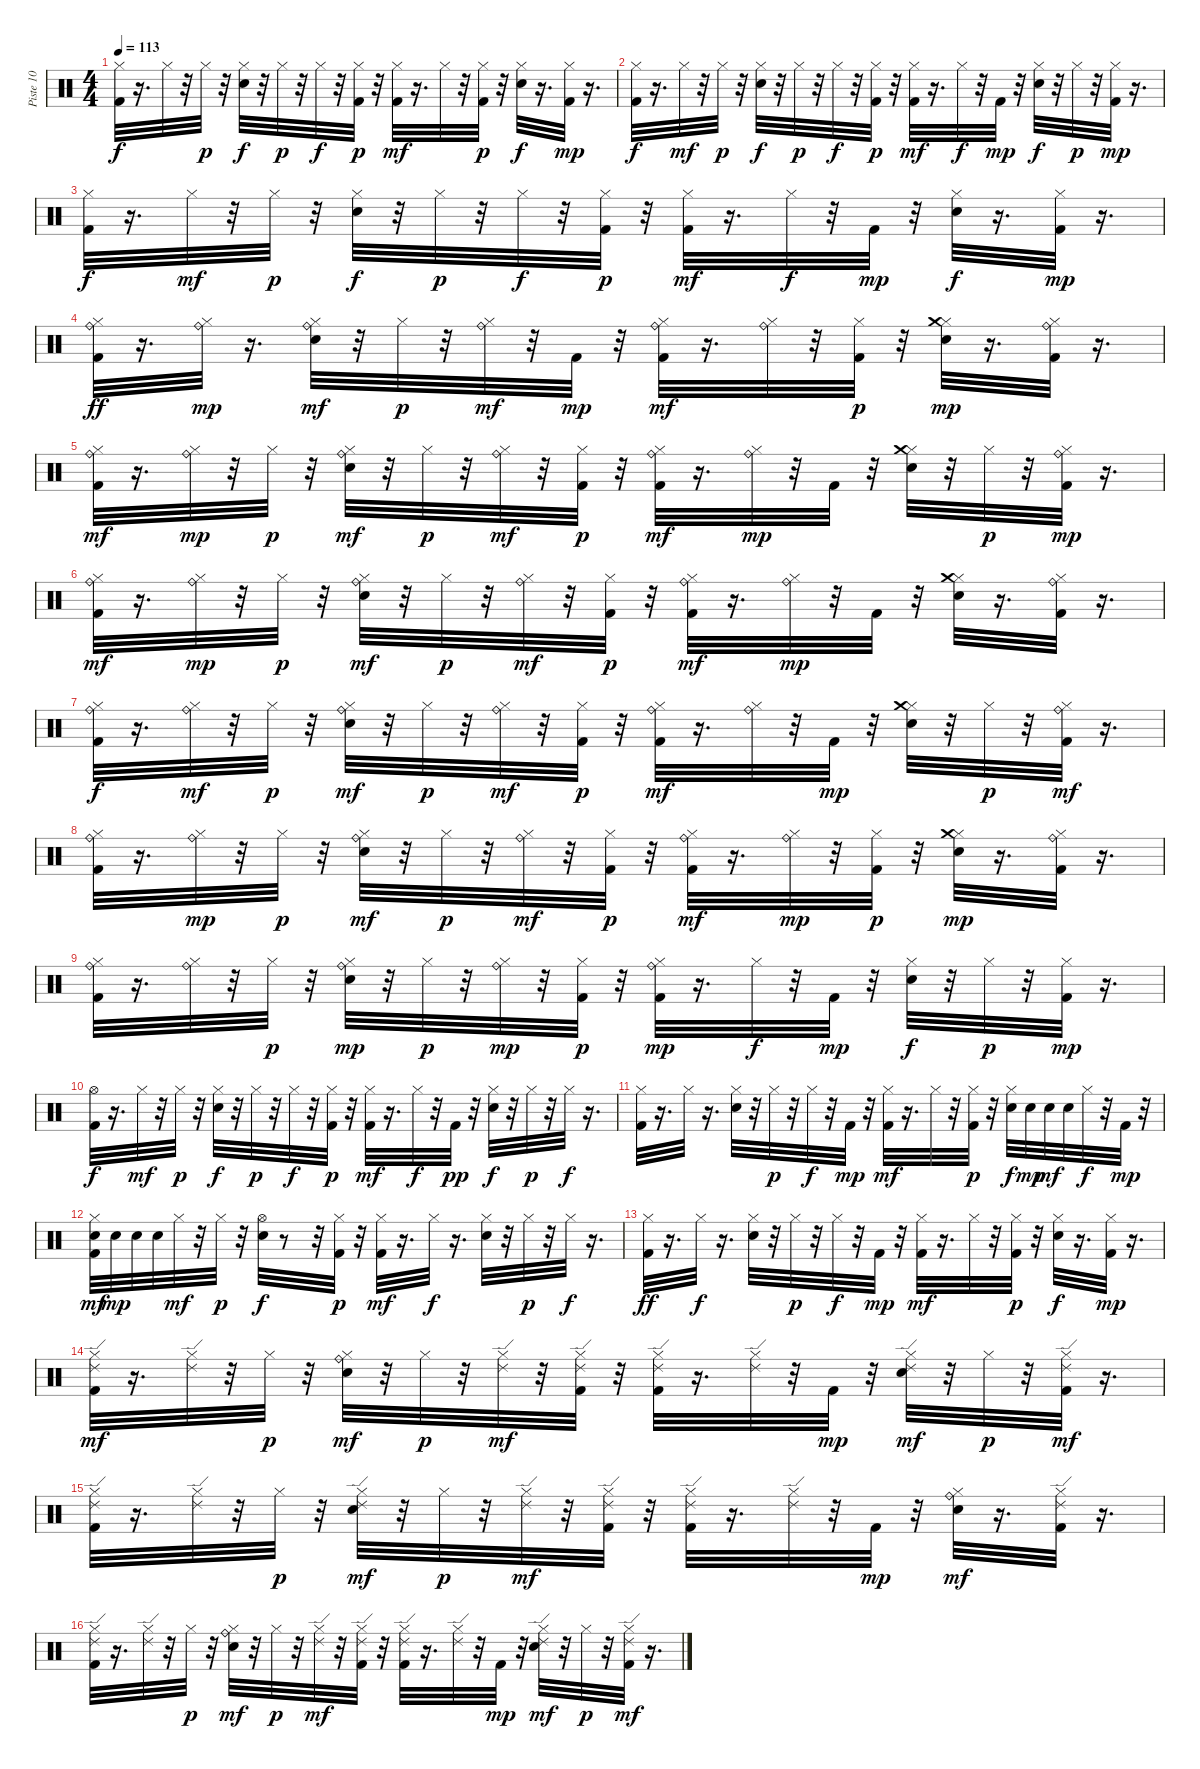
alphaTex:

\track ("Piste 10" "Piste 10") {instrument percussion}
\staff {score}
\articulation defaults
\ts (4 4)
\tempo 113
\clef neutral
\ks c
("Kick (hit) 2" "Hi-Hat (closed)").32{dy f} r.16{d} "Hi-Hat (closed)".32 r.32 "Hi-Hat (closed)".32{dy p} r.32 ("Electric Snare (hit)" "Hi-Hat (closed)").32{dy f} r.32 "Hi-Hat (closed)".32{dy p} r.32 "Hi-Hat (closed)".32{dy f} r.32 ("Kick (hit) 2" "Hi-Hat (closed)").32{dy p} r.32 ("Kick (hit) 2" "Hi-Hat (closed)").32{dy mf} r.16{d} "Hi-Hat (closed)".32 r.32 ("Kick (hit) 2" "Hi-Hat (closed)").32{dy p} r.32 ("Electric Snare (hit)" "Hi-Hat (closed)").32{dy f} r.16{d} ("Kick (hit) 2" "Hi-Hat (closed)").32{dy mp} r.16{d} |
("Kick (hit) 2" "Hi-Hat (closed)").32{dy f} r.16{d} "Hi-Hat (closed)".32{dy mf} r.32 "Hi-Hat (closed)".32{dy p} r.32 ("Electric Snare (hit)" "Hi-Hat (closed)").32{dy f} r.32 "Hi-Hat (closed)".32{dy p} r.32 "Hi-Hat (closed)".32{dy f} r.32 ("Kick (hit) 2" "Hi-Hat (closed)").32{dy p} r.32 ("Kick (hit) 2" "Hi-Hat (closed)").32{dy mf} r.16{d} "Hi-Hat (closed)".32{dy f} r.32 "Kick (hit) 2".32{dy mp} r.32 ("Electric Snare (hit)" "Hi-Hat (closed)").32{dy f} r.32 "Hi-Hat (closed)".32{dy p} r.32 ("Kick (hit) 2" "Hi-Hat (closed)").32{dy mp} r.16{d} |
("Kick (hit) 2" "Hi-Hat (closed)").32{dy f} r.16{d} "Hi-Hat (closed)".32{dy mf} r.32 "Hi-Hat (closed)".32{dy p} r.32 ("Electric Snare (hit)" "Hi-Hat (closed)").32{dy f} r.32 "Hi-Hat (closed)".32{dy p} r.32 "Hi-Hat (closed)".32{dy f} r.32 ("Kick (hit) 2" "Hi-Hat (closed)").32{dy p} r.32 ("Kick (hit) 2" "Hi-Hat (closed)").32{dy mf} r.16{d} "Hi-Hat (closed)".32{dy f} r.32 "Kick (hit) 2".32{dy mp} r.32 ("Electric Snare (hit)" "Hi-Hat (closed)").32{dy f} r.16{d} ("Kick (hit) 2" "Hi-Hat (closed)").32{dy mp} r.16{d} |
("Kick (hit) 2" "Hi-Hat (closed)" "Ride (bell)").32{dy ff} r.16{d} ("Hi-Hat (closed)" "Ride (bell)").32{dy mp} r.16{d} ("Electric Snare (hit)" "Hi-Hat (closed)" "Ride (bell)").32{dy mf} r.32 "Hi-Hat (closed)".32{dy p} r.32 ("Hi-Hat (closed)" "Ride (bell)").32{dy mf} r.32 "Kick (hit) 2".32{dy mp} r.32 ("Kick (hit) 2" "Hi-Hat (closed)" "Ride (bell)").32{dy mf} r.16{d} ("Hi-Hat (closed)" "Ride (bell)").32 r.32 ("Kick (hit) 2" "Hi-Hat (closed)").32{dy p} r.32 ("Electric Snare (hit)" "Hi-Hat (closed)" "Crash medium (hit)").32{dy mp} r.16{d} ("Kick (hit) 2" "Hi-Hat (closed)" "Ride (bell)").32 r.16{d} |
("Kick (hit) 2" "Hi-Hat (closed)" "Ride (bell)").32{dy mf} r.16{d} ("Hi-Hat (closed)" "Ride (bell)").32{dy mp} r.32 "Hi-Hat (closed)".32{dy p} r.32 ("Electric Snare (hit)" "Hi-Hat (closed)" "Ride (bell)").32{dy mf} r.32 "Hi-Hat (closed)".32{dy p} r.32 ("Hi-Hat (closed)" "Ride (bell)").32{dy mf} r.32 ("Kick (hit) 2" "Hi-Hat (closed)").32{dy p} r.32 ("Kick (hit) 2" "Hi-Hat (closed)" "Ride (bell)").32{dy mf} r.16{d} ("Hi-Hat (closed)" "Ride (bell)").32{dy mp} r.32 "Kick (hit) 2".32 r.32 ("Electric Snare (hit)" "Hi-Hat (closed)" "Crash medium (hit)").32 r.32 "Hi-Hat (closed)".32{dy p} r.32 ("Kick (hit) 2" "Hi-Hat (closed)" "Ride (bell)").32{dy mp} r.16{d} |
("Kick (hit) 2" "Hi-Hat (closed)" "Ride (bell)").32{dy mf} r.16{d} ("Hi-Hat (closed)" "Ride (bell)").32{dy mp} r.32 "Hi-Hat (closed)".32{dy p} r.32 ("Electric Snare (hit)" "Hi-Hat (closed)" "Ride (bell)").32{dy mf} r.32 "Hi-Hat (closed)".32{dy p} r.32 ("Hi-Hat (closed)" "Ride (bell)").32{dy mf} r.32 ("Kick (hit) 2" "Hi-Hat (closed)").32{dy p} r.32 ("Kick (hit) 2" "Hi-Hat (closed)" "Ride (bell)").32{dy mf} r.16{d} ("Hi-Hat (closed)" "Ride (bell)").32{dy mp} r.32 "Kick (hit) 2".32 r.32 ("Electric Snare (hit)" "Hi-Hat (closed)" "Crash medium (hit)").32 r.16{d} ("Kick (hit) 2" "Hi-Hat (closed)" "Ride (bell)").32 r.16{d} |
("Kick (hit) 2" "Hi-Hat (closed)" "Ride (bell)").32{dy f} r.16{d} ("Hi-Hat (closed)" "Ride (bell)").32{dy mf} r.32 "Hi-Hat (closed)".32{dy p} r.32 ("Electric Snare (hit)" "Hi-Hat (closed)" "Ride (bell)").32{dy mf} r.32 "Hi-Hat (closed)".32{dy p} r.32 ("Hi-Hat (closed)" "Ride (bell)").32{dy mf} r.32 ("Kick (hit) 2" "Hi-Hat (closed)").32{dy p} r.32 ("Kick (hit) 2" "Hi-Hat (closed)" "Ride (bell)").32{dy mf} r.16{d} ("Hi-Hat (closed)" "Ride (bell)").32 r.32 "Kick (hit) 2".32{dy mp} r.32 ("Electric Snare (hit)" "Hi-Hat (closed)" "Crash medium (hit)").32 r.32 "Hi-Hat (closed)".32{dy p} r.32 ("Kick (hit) 2" "Hi-Hat (closed)" "Ride (bell)").32{dy mf} r.16{d} |
("Kick (hit) 2" "Hi-Hat (closed)" "Ride (bell)").32 r.16{d} ("Hi-Hat (closed)" "Ride (bell)").32{dy mp} r.32 "Hi-Hat (closed)".32{dy p} r.32 ("Electric Snare (hit)" "Hi-Hat (closed)" "Ride (bell)").32{dy mf} r.32 "Hi-Hat (closed)".32{dy p} r.32 ("Hi-Hat (closed)" "Ride (bell)").32{dy mf} r.32 ("Kick (hit) 2" "Hi-Hat (closed)").32{dy p} r.32 ("Kick (hit) 2" "Hi-Hat (closed)" "Ride (bell)").32{dy mf} r.16{d} ("Hi-Hat (closed)" "Ride (bell)").32{dy mp} r.32 ("Kick (hit) 2" "Hi-Hat (closed)").32{dy p} r.32 ("Electric Snare (hit)" "Hi-Hat (closed)" "Crash medium (hit)").32{dy mp} r.16{d} ("Kick (hit) 2" "Hi-Hat (closed)" "Ride (bell)").32 r.16{d} |
("Kick (hit) 2" "Hi-Hat (closed)" "Ride (bell)").32 r.16{d} ("Hi-Hat (closed)" "Ride (bell)").32 r.32 "Hi-Hat (closed)".32{dy p} r.32 ("Electric Snare (hit)" "Hi-Hat (closed)" "Ride (bell)").32{dy mp} r.32 "Hi-Hat (closed)".32{dy p} r.32 ("Hi-Hat (closed)" "Ride (bell)").32{dy mp} r.32 ("Kick (hit) 2" "Hi-Hat (closed)").32{dy p} r.32 ("Kick (hit) 2" "Hi-Hat (closed)" "Ride (bell)").32{dy mp} r.16{d} "Hi-Hat (closed)".32{dy f} r.32 "Kick (hit) 2".32{dy mp} r.32 ("Electric Snare (hit)" "Hi-Hat (closed)").32{dy f} r.32 "Hi-Hat (closed)".32{dy p} r.32 ("Kick (hit) 2" "Hi-Hat (closed)").32{dy mp} r.16{d} |
("Kick (hit) 2" "Hi-Hat (open)").32{dy f} r.16{d} "Hi-Hat (closed)".32{dy mf} r.32 "Hi-Hat (closed)".32{dy p} r.32 ("Electric Snare (hit)" "Hi-Hat (closed)").32{dy f} r.32 "Hi-Hat (closed)".32{dy p} r.32 "Hi-Hat (closed)".32{dy f} r.32 ("Kick (hit) 2" "Hi-Hat (closed)").32{dy p} r.32 ("Kick (hit) 2" "Hi-Hat (closed)").32{dy mf} r.16{d} "Hi-Hat (closed)".32{dy f} r.32 "Kick (hit) 2".32{dy pp} r.32 ("Electric Snare (hit)" "Hi-Hat (closed)").32{dy f} r.32 "Hi-Hat (closed)".32{dy p} r.32 "Hi-Hat (closed)".32{dy f} r.16{d} |
("Kick (hit) 2" "Hi-Hat (closed)").32 r.16{d} "Hi-Hat (closed)".32 r.16{d} ("Electric Snare (hit)" "Hi-Hat (closed)").32 r.32 "Hi-Hat (closed)".32{dy p} r.32 "Hi-Hat (closed)".32{dy f} r.32 "Kick (hit) 2".32{dy mp} r.32 ("Kick (hit) 2" "Hi-Hat (closed)").32{dy mf} r.16{d} "Hi-Hat (closed)".32 r.32 ("Kick (hit) 2" "Hi-Hat (closed)").32{dy p} r.32 ("Electric Snare (hit)" "Hi-Hat (closed)").32{dy f} "Electric Snare (hit)".32{dy mp} "Electric Snare (hit)".32{dy mf} "Electric Snare (hit)".32 "Hi-Hat (closed)".32{dy f} r.32 "Kick (hit) 2".32{dy mp} r.32 |
("Kick (hit) 2" "Hi-Hat (closed)" "Electric Snare (hit)").32{dy mf} "Electric Snare (hit)".32{dy mp} "Electric Snare (hit)".32 "Electric Snare (hit)".32 "Hi-Hat (closed)".32{dy mf} r.32 "Hi-Hat (closed)".32{dy p} r.32 ("Electric Snare (hit)" "Hi-Hat (open)").32{dy f} r.8 r.32 ("Kick (hit) 2" "Hi-Hat (closed)").32{dy p} r.32 ("Kick (hit) 2" "Hi-Hat (closed)").32{dy mf} r.16{d} "Hi-Hat (closed)".32{dy f} r.16{d} ("Electric Snare (hit)" "Hi-Hat (closed)").32 r.32 "Hi-Hat (closed)".32{dy p} r.32 "Hi-Hat (closed)".32{dy f} r.16{d} |
("Kick (hit) 2" "Hi-Hat (closed)").32{dy ff} r.16{d} "Hi-Hat (closed)".32{dy f} r.16{d} ("Electric Snare (hit)" "Hi-Hat (closed)").32 r.32 "Hi-Hat (closed)".32{dy p} r.32 "Hi-Hat (closed)".32{dy f} r.32 "Kick (hit) 2".32{dy mp} r.32 ("Kick (hit) 2" "Hi-Hat (closed)").32{dy mf} r.16{d} "Hi-Hat (closed)".32 r.32 ("Kick (hit) 2" "Hi-Hat (closed)").32{dy p} r.32 ("Electric Snare (hit)" "Hi-Hat (closed)").32{dy f} r.16{d} ("Kick (hit) 2" "Hi-Hat (closed)").32{dy mp} r.16{d} |
("Kick (hit) 2" "Hi-Hat (closed)" "Ride (edge) 2").32{dy mf} r.16{d} ("Hi-Hat (closed)" "Ride (edge) 2").32 r.32 "Hi-Hat (closed)".32{dy p} r.32 ("Electric Snare (hit)" "Hi-Hat (closed)" "Ride (bell)").32{dy mf} r.32 "Hi-Hat (closed)".32{dy p} r.32 ("Hi-Hat (closed)" "Ride (edge) 2").32{dy mf} r.32 ("Kick (hit) 2" "Hi-Hat (closed)" "Ride (edge) 2").32 r.32 ("Kick (hit) 2" "Hi-Hat (closed)" "Ride (edge) 2").32 r.16{d} ("Hi-Hat (closed)" "Ride (edge) 2").32 r.32 "Kick (hit) 2".32{dy mp} r.32 ("Electric Snare (hit)" "Hi-Hat (closed)" "Ride (edge) 2").32{dy mf} r.32 "Hi-Hat (closed)".32{dy p} r.32 ("Kick (hit) 2" "Hi-Hat (closed)" "Ride (edge) 2").32{dy mf} r.16{d} |
("Kick (hit) 2" "Hi-Hat (closed)" "Ride (edge) 2").32 r.16{d} ("Hi-Hat (closed)" "Ride (edge) 2").32 r.32 "Hi-Hat (closed)".32{dy p} r.32 ("Electric Snare (hit)" "Hi-Hat (closed)" "Ride (edge) 2").32{dy mf} r.32 "Hi-Hat (closed)".32{dy p} r.32 ("Hi-Hat (closed)" "Ride (edge) 2").32{dy mf} r.32 ("Kick (hit) 2" "Hi-Hat (closed)" "Ride (edge) 2").32 r.32 ("Kick (hit) 2" "Hi-Hat (closed)" "Ride (edge) 2").32 r.16{d} ("Hi-Hat (closed)" "Ride (edge) 2").32 r.32 "Kick (hit) 2".32{dy mp} r.32 ("Electric Snare (hit)" "Hi-Hat (closed)" "Ride (bell)").32{dy mf} r.16{d} ("Kick (hit) 2" "Hi-Hat (closed)" "Ride (edge) 2").32 r.16{d} |
("Kick (hit) 2" "Hi-Hat (closed)" "Ride (edge) 2").32 r.16{d} ("Hi-Hat (closed)" "Ride (edge) 2").32 r.32 "Hi-Hat (closed)".32{dy p} r.32 ("Electric Snare (hit)" "Hi-Hat (closed)" "Ride (bell)").32{dy mf} r.32 "Hi-Hat (closed)".32{dy p} r.32 ("Hi-Hat (closed)" "Ride (edge) 2").32{dy mf} r.32 ("Kick (hit) 2" "Hi-Hat (closed)" "Ride (edge) 2").32 r.32 ("Kick (hit) 2" "Hi-Hat (closed)" "Ride (edge) 2").32 r.16{d} ("Hi-Hat (closed)" "Ride (edge) 2").32 r.32 "Kick (hit) 2".32{dy mp} r.32 ("Electric Snare (hit)" "Hi-Hat (closed)" "Ride (edge) 2").32{dy mf} r.32 "Hi-Hat (closed)".32{dy p} r.32 ("Kick (hit) 2" "Hi-Hat (closed)" "Ride (edge) 2").32{dy mf} r.16{d}
